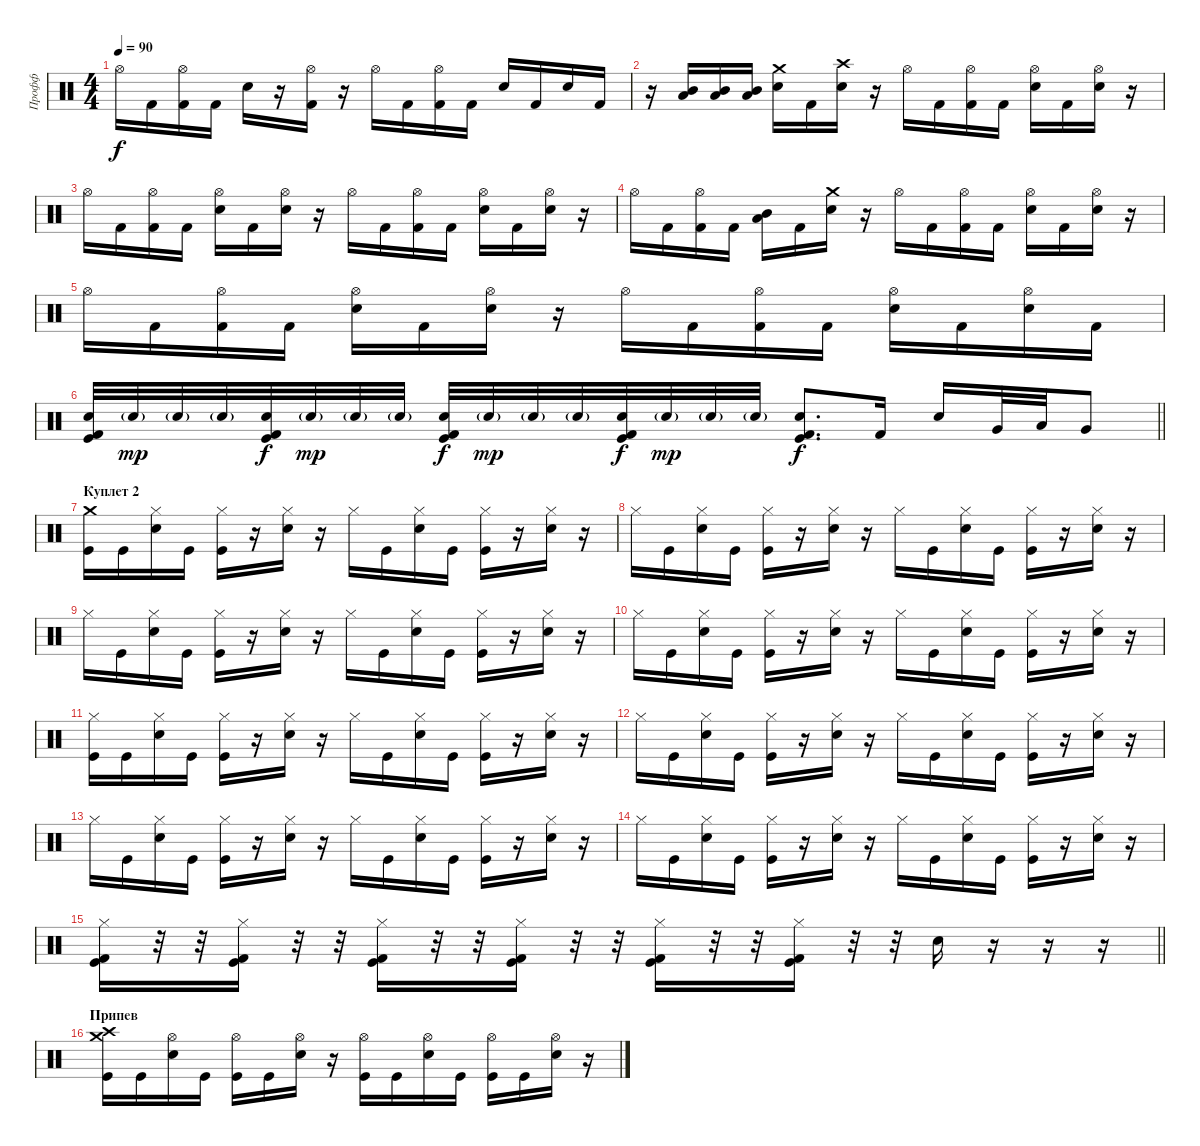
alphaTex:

\track ("Профф" "Профф") {instrument percussion}
\staff {score}
\articulation defaults
\ts (4 4)
\tempo 90
\clef neutral
\ks c "Hi-Hat (open)".16{dy f} "Kick (hit) 2".16
("Kick (hit) 2" "Hi-Hat (open)").16 "Kick (hit) 2".16 "Electric Snare (hit)".16 r.16 ("Kick (hit) 2" "Hi-Hat (open)").16 r.16 "Hi-Hat (open)".16 "Kick (hit) 2".16 ("Kick (hit) 2" "Hi-Hat (open)").16 "Kick (hit) 2".16 "Electric Snare (hit)".16 "Kick (hit) 2".16 "Electric Snare (hit)".16 "Kick (hit) 2".16 |
r.16 ("Mid Tom (hit)" "Low Tom (hit)").16 ("Mid Tom (hit)" "Low Tom (hit)").16 ("Mid Tom (hit)" "Low Tom (hit)").16 ("Electric Snare (hit)" "Crash medium (hit)").16 "Kick (hit) 2".16 ("Electric Snare (hit)" "Crash high (hit)").16 r.16 "Hi-Hat (open)".16 "Kick (hit) 2".16 ("Kick (hit) 2" "Hi-Hat (open)").16 "Kick (hit) 2".16 ("Electric Snare (hit)" "Hi-Hat (open)").16 "Kick (hit) 2".16 ("Electric Snare (hit)" "Hi-Hat (open)").16 r.16 |
"Hi-Hat (open)".16 "Kick (hit) 2".16 ("Kick (hit) 2" "Hi-Hat (open)").16 "Kick (hit) 2".16 ("Electric Snare (hit)" "Hi-Hat (open)").16 "Kick (hit) 2".16 ("Electric Snare (hit)" "Hi-Hat (open)").16 r.16 "Hi-Hat (open)".16 "Kick (hit) 2".16 ("Kick (hit) 2" "Hi-Hat (open)").16 "Kick (hit) 2".16 ("Electric Snare (hit)" "Hi-Hat (open)").16 "Kick (hit) 2".16 ("Electric Snare (hit)" "Hi-Hat (open)").16 r.16 |
"Hi-Hat (open)".16 "Kick (hit) 2".16 ("Kick (hit) 2" "Hi-Hat (open)").16 "Kick (hit) 2".16 ("Low Tom (hit)" "Mid Tom (hit)").16 "Kick (hit) 2".16 ("Electric Snare (hit)" "Crash medium (hit)").16 r.16 "Hi-Hat (open)".16 "Kick (hit) 2".16 ("Kick (hit) 2" "Hi-Hat (open)").16 "Kick (hit) 2".16 ("Electric Snare (hit)" "Hi-Hat (open)").16 "Kick (hit) 2".16 ("Electric Snare (hit)" "Hi-Hat (open)").16 r.16 |
"Hi-Hat (open)".16 "Kick (hit) 2".16 ("Kick (hit) 2" "Hi-Hat (open)").16 "Kick (hit) 2".16 ("Electric Snare (hit)" "Hi-Hat (open)").16 "Kick (hit) 2".16 ("Electric Snare (hit)" "Hi-Hat (open)").16 r.16 "Hi-Hat (open)".16 "Kick (hit) 2".16 ("Kick (hit) 2" "Hi-Hat (open)").16 "Kick (hit) 2".16 ("Electric Snare (hit)" "Hi-Hat (open)").16 "Kick (hit) 2".16 ("Electric Snare (hit)" "Hi-Hat (open)").16 "Kick (hit) 2".16 |
\barLineRight lightlight
("Electric Snare (hit)" "Kick (hit)" "Kick (hit) 2").32 "Electric Snare (hit)"{g}.32{dy mp} "Electric Snare (hit)"{g}.32 "Electric Snare (hit)"{g}.32 ("Electric Snare (hit)" "Kick (hit)" "Kick (hit) 2").32{dy f} "Electric Snare (hit)"{g}.32{dy mp} "Electric Snare (hit)"{g}.32 "Electric Snare (hit)"{g}.32 ("Electric Snare (hit)" "Kick (hit)" "Kick (hit) 2").32{dy f} "Electric Snare (hit)"{g}.32{dy mp} "Electric Snare (hit)"{g}.32 "Electric Snare (hit)"{g}.32 ("Electric Snare (hit)" "Kick (hit)" "Kick (hit) 2").32{dy f} "Electric Snare (hit)"{g}.32{dy mp} "Electric Snare (hit)"{g}.32 "Electric Snare (hit)"{g}.32 ("Electric Snare (hit)" "Kick (hit)" "Kick (hit) 2").8{d dy f} "Kick (hit) 2".16 "Electric Snare (hit)".16 "Very Low Tom (hit)".32 "Low Tom (hit)".32 "Very Low Tom (hit)".8 |
\section ("" "Куплет 2")
("Crash medium (hit)" "Kick (hit)").16 "Kick (hit)".16 ("Hi-Hat (closed)" "Electric Snare (hit)").16 "Kick (hit)".16 ("Hi-Hat (closed)" "Kick (hit)").16 r.16 ("Hi-Hat (closed)" "Electric Snare (hit)").16 r.16 "Hi-Hat (closed)".16 "Kick (hit)".16 ("Hi-Hat (closed)" "Electric Snare (hit)").16 "Kick (hit)".16 ("Hi-Hat (closed)" "Kick (hit)").16 r.16 ("Hi-Hat (closed)" "Electric Snare (hit)").16 r.16 |
"Hi-Hat (closed)".16 "Kick (hit)".16 ("Hi-Hat (closed)" "Electric Snare (hit)").16 "Kick (hit)".16 ("Hi-Hat (closed)" "Kick (hit)").16 r.16 ("Hi-Hat (closed)" "Electric Snare (hit)").16 r.16 "Hi-Hat (closed)".16 "Kick (hit)".16 ("Hi-Hat (closed)" "Electric Snare (hit)").16 "Kick (hit)".16 ("Hi-Hat (closed)" "Kick (hit)").16 r.16 ("Hi-Hat (closed)" "Electric Snare (hit)").16 r.16 |
"Hi-Hat (closed)".16 "Kick (hit)".16 ("Hi-Hat (closed)" "Electric Snare (hit)").16 "Kick (hit)".16 ("Hi-Hat (closed)" "Kick (hit)").16 r.16 ("Hi-Hat (closed)" "Electric Snare (hit)").16 r.16 "Hi-Hat (closed)".16 "Kick (hit)".16 ("Hi-Hat (closed)" "Electric Snare (hit)").16 "Kick (hit)".16 ("Hi-Hat (closed)" "Kick (hit)").16 r.16 ("Hi-Hat (closed)" "Electric Snare (hit)").16 r.16 |
"Hi-Hat (closed)".16 "Kick (hit)".16 ("Hi-Hat (closed)" "Electric Snare (hit)").16 "Kick (hit)".16 ("Hi-Hat (closed)" "Kick (hit)").16 r.16 ("Hi-Hat (closed)" "Electric Snare (hit)").16 r.16 "Hi-Hat (closed)".16 "Kick (hit)".16 ("Hi-Hat (closed)" "Electric Snare (hit)").16 "Kick (hit)".16 ("Hi-Hat (closed)" "Kick (hit)").16 r.16 ("Hi-Hat (closed)" "Electric Snare (hit)").16 r.16 |
("Hi-Hat (closed)" "Kick (hit)").16 "Kick (hit)".16 ("Hi-Hat (closed)" "Electric Snare (hit)").16 "Kick (hit)".16 ("Hi-Hat (closed)" "Kick (hit)").16 r.16 ("Hi-Hat (closed)" "Electric Snare (hit)").16 r.16 "Hi-Hat (closed)".16 "Kick (hit)".16 ("Hi-Hat (closed)" "Electric Snare (hit)").16 "Kick (hit)".16 ("Hi-Hat (closed)" "Kick (hit)").16 r.16 ("Hi-Hat (closed)" "Electric Snare (hit)").16 r.16 |
"Hi-Hat (closed)".16 "Kick (hit)".16 ("Hi-Hat (closed)" "Electric Snare (hit)").16 "Kick (hit)".16 ("Hi-Hat (closed)" "Kick (hit)").16 r.16 ("Hi-Hat (closed)" "Electric Snare (hit)").16 r.16 "Hi-Hat (closed)".16 "Kick (hit)".16 ("Hi-Hat (closed)" "Electric Snare (hit)").16 "Kick (hit)".16 ("Hi-Hat (closed)" "Kick (hit)").16 r.16 ("Hi-Hat (closed)" "Electric Snare (hit)").16 r.16 |
"Hi-Hat (closed)".16 "Kick (hit)".16 ("Hi-Hat (closed)" "Electric Snare (hit)").16 "Kick (hit)".16 ("Hi-Hat (closed)" "Kick (hit)").16 r.16 ("Hi-Hat (closed)" "Electric Snare (hit)").16 r.16 "Hi-Hat (closed)".16 "Kick (hit)".16 ("Hi-Hat (closed)" "Electric Snare (hit)").16 "Kick (hit)".16 ("Hi-Hat (closed)" "Kick (hit)").16 r.16 ("Hi-Hat (closed)" "Electric Snare (hit)").16 r.16 |
"Hi-Hat (closed)".16 "Kick (hit)".16 ("Hi-Hat (closed)" "Electric Snare (hit)").16 "Kick (hit)".16 ("Hi-Hat (closed)" "Kick (hit)").16 r.16 ("Hi-Hat (closed)" "Electric Snare (hit)").16 r.16 "Hi-Hat (closed)".16 "Kick (hit)".16 ("Hi-Hat (closed)" "Electric Snare (hit)").16 "Kick (hit)".16 ("Hi-Hat (closed)" "Kick (hit)").16 r.16 ("Hi-Hat (closed)" "Electric Snare (hit)").16 r.16 |
\barLineRight lightlight
("Hi-Hat (closed)" "Kick (hit)" "Kick (hit) 2").16 r.32 r.32 ("Hi-Hat (closed)" "Kick (hit)" "Kick (hit) 2").16 r.32 r.32 ("Hi-Hat (closed)" "Kick (hit)" "Kick (hit) 2").16 r.32 r.32 ("Hi-Hat (closed)" "Kick (hit)" "Kick (hit) 2").16 r.32 r.32 ("Hi-Hat (closed)" "Kick (hit)" "Kick (hit) 2").16 r.32 r.32 ("Hi-Hat (closed)" "Kick (hit)" "Kick (hit) 2").16 r.32 r.32 "Electric Snare (hit)".16 r.16 r.16 r.16 |
\section ("" "Припев")
("Kick (hit)" "Crash high (hit)" "Crash medium (hit)").16 "Kick (hit)".16 ("Electric Snare (hit)" "Hi-Hat (open)").16 "Kick (hit)".16 ("Kick (hit)" "Hi-Hat (open)").16 "Kick (hit)".16 ("Electric Snare (hit)" "Hi-Hat (open)").16 r.16 ("Kick (hit)" "Hi-Hat (open)").16 "Kick (hit)".16 ("Electric Snare (hit)" "Hi-Hat (open)").16 "Kick (hit)".16 ("Kick (hit)" "Hi-Hat (open)").16 "Kick (hit)".16 ("Electric Snare (hit)" "Hi-Hat (open)").16 r.16
